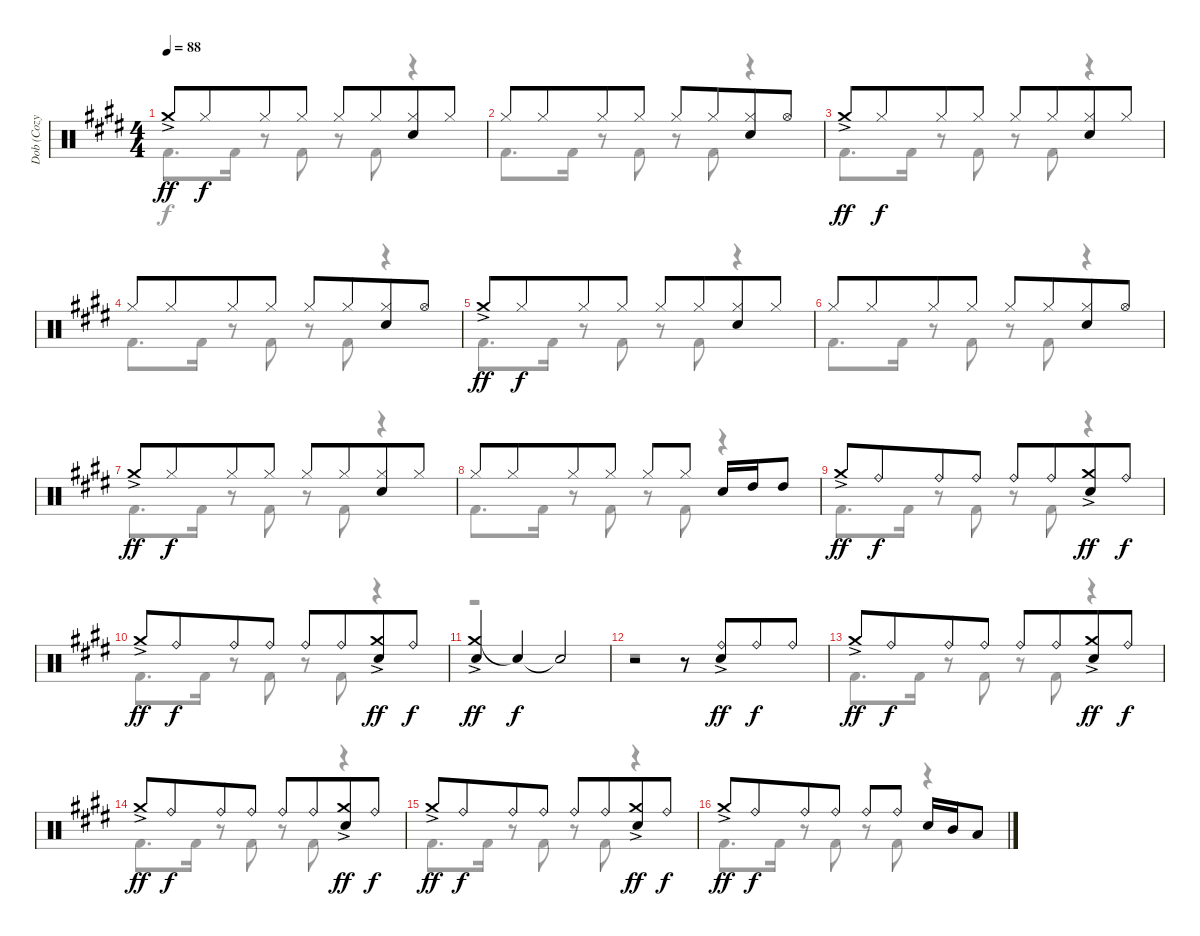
\track ("Dob (Cozy Powell)" "Dob (Cozy ") {instrument percussion}
\staff {score}
\articulation defaults
\voice
\ts (4 4)
\tempo 88
\clef neutral
\ks e "Crash medium (hit)"{ac}.8{dy ff} "Hi-Hat (closed)".8{dy f beam merge} "Hi-Hat (closed)".8 "Hi-Hat (closed)".8 "Hi-Hat (closed)".8 "Hi-Hat (closed)".8{beam merge}
("Hi-Hat (closed)" "Electric Snare (hit)").8 "Hi-Hat (closed)".8 |
"Hi-Hat (closed)".8 "Hi-Hat (closed)".8{beam merge} "Hi-Hat (closed)".8 "Hi-Hat (closed)".8 "Hi-Hat (closed)".8 "Hi-Hat (closed)".8{beam merge} ("Hi-Hat (closed)" "Electric Snare (hit)").8 "Hi-Hat (open)".8 |
"Crash medium (hit)"{ac}.8{dy ff} "Hi-Hat (closed)".8{dy f beam merge} "Hi-Hat (closed)".8 "Hi-Hat (closed)".8 "Hi-Hat (closed)".8 "Hi-Hat (closed)".8{beam merge} ("Hi-Hat (closed)" "Electric Snare (hit)").8 "Hi-Hat (closed)".8 |
"Hi-Hat (closed)".8 "Hi-Hat (closed)".8{beam merge} "Hi-Hat (closed)".8 "Hi-Hat (closed)".8 "Hi-Hat (closed)".8 "Hi-Hat (closed)".8{beam merge} ("Hi-Hat (closed)" "Electric Snare (hit)").8 "Hi-Hat (open)".8 |
"Crash medium (hit)"{ac}.8{dy ff} "Hi-Hat (closed)".8{dy f beam merge} "Hi-Hat (closed)".8 "Hi-Hat (closed)".8 "Hi-Hat (closed)".8 "Hi-Hat (closed)".8{beam merge} ("Hi-Hat (closed)" "Electric Snare (hit)").8 "Hi-Hat (closed)".8 |
"Hi-Hat (closed)".8 "Hi-Hat (closed)".8{beam merge} "Hi-Hat (closed)".8 "Hi-Hat (closed)".8 "Hi-Hat (closed)".8 "Hi-Hat (closed)".8{beam merge} ("Hi-Hat (closed)" "Electric Snare (hit)").8 "Hi-Hat (open)".8 |
"Crash medium (hit)"{ac}.8{dy ff} "Hi-Hat (closed)".8{dy f beam merge} "Hi-Hat (closed)".8 "Hi-Hat (closed)".8 "Hi-Hat (closed)".8 "Hi-Hat (closed)".8{beam merge} ("Hi-Hat (closed)" "Electric Snare (hit)").8 "Hi-Hat (closed)".8 |
"Hi-Hat (closed)".8 "Hi-Hat (closed)".8{beam merge} "Hi-Hat (closed)".8 "Hi-Hat (closed)".8 "Hi-Hat (closed)".8 "Hi-Hat (closed)".8 "Electric Snare (hit)".16 "High Tom (hit)".16 "High Tom (hit)".8 |
"Crash medium (hit)"{ac}.8{dy ff} "Ride (bell)".8{dy f beam merge} "Ride (bell)".8 "Ride (bell)".8 "Ride (bell)".8 "Ride (bell)".8{beam merge} ("Crash medium (hit)"{ac} "Electric Snare (hit)").8{dy ff} "Ride (bell)".8{dy f} |
"Crash medium (hit)"{ac}.8{dy ff} "Ride (bell)".8{dy f beam merge} "Ride (bell)".8 "Ride (bell)".8 "Ride (bell)".8 "Ride (bell)".8{beam merge} ("Crash medium (hit)"{ac} "Electric Snare (hit)").8{dy ff} "Ride (bell)".8{dy f} |
("Crash medium (hit)"{ac} "Electric Snare (hit)").4{dy ff} "Snare (hit)"{t}.4{dy f} "Snare (hit)"{t}.2 |
r.2 r.8{beam merge} ("Ride (bell)"{ac} "Electric Snare (hit)").8{dy ff beam merge} "Ride (bell)".8{dy f beam merge} "Ride (bell)".8 |
"Crash medium (hit)"{ac}.8{dy ff} "Ride (bell)".8{dy f beam merge} "Ride (bell)".8 "Ride (bell)".8 "Ride (bell)".8 "Ride (bell)".8{beam merge} ("Crash medium (hit)"{ac} "Electric Snare (hit)").8{dy ff} "Ride (bell)".8{dy f} |
"Crash medium (hit)"{ac}.8{dy ff} "Ride (bell)".8{dy f beam merge} "Ride (bell)".8 "Ride (bell)".8 "Ride (bell)".8 "Ride (bell)".8{beam merge} ("Crash medium (hit)"{ac} "Electric Snare (hit)").8{dy ff} "Ride (bell)".8{dy f} |
"Crash medium (hit)"{ac}.8{dy ff} "Ride (bell)".8{dy f beam merge} "Ride (bell)".8 "Ride (bell)".8 "Ride (bell)".8 "Ride (bell)".8{beam merge} ("Crash medium (hit)"{ac} "Electric Snare (hit)").8{dy ff} "Ride (bell)".8{dy f} |
"Crash medium (hit)"{ac}.8{dy ff} "Ride (bell)".8{dy f beam merge} "Ride (bell)".8 "Ride (bell)".8 "Ride (bell)".8 "Ride (bell)".8 "Electric Snare (hit)".16 "Mid Tom (hit)".16 "Low Tom (hit)".8
\voice
\clef neutral
\ottava regular
\simile none
\ks e "Kick (hit) 2".8{d dy f} "Kick (hit) 2".16
r.8 "Kick (hit) 2".8 r.8 "Kick (hit) 2".8 r.4 |
"Kick (hit) 2".8{d} "Kick (hit) 2".16 r.8 "Kick (hit) 2".8 r.8 "Kick (hit) 2".8 r.4 |
"Kick (hit) 2".8{d} "Kick (hit) 2".16 r.8 "Kick (hit) 2".8 r.8 "Kick (hit) 2".8 r.4 |
"Kick (hit) 2".8{d} "Kick (hit) 2".16 r.8 "Kick (hit) 2".8 r.8 "Kick (hit) 2".8 r.4 |
"Kick (hit) 2".8{d} "Kick (hit) 2".16 r.8 "Kick (hit) 2".8 r.8 "Kick (hit) 2".8 r.4 |
"Kick (hit) 2".8{d} "Kick (hit) 2".16 r.8 "Kick (hit) 2".8 r.8 "Kick (hit) 2".8 r.4 |
"Kick (hit) 2".8{d} "Kick (hit) 2".16 r.8 "Kick (hit) 2".8 r.8 "Kick (hit) 2".8 r.4 |
"Kick (hit) 2".8{d} "Kick (hit) 2".16 r.8 "Kick (hit) 2".8 r.8 "Kick (hit) 2".8 r.4 |
"Kick (hit) 2".8{d} "Kick (hit) 2".16 r.8 "Kick (hit) 2".8 r.8 "Kick (hit) 2".8 r.4 |
"Kick (hit) 2".8{d} "Kick (hit) 2".16 r.8 "Kick (hit) 2".8 r.8 "Kick (hit) 2".8 r.4 |
r.1 |
r.1 |
"Kick (hit) 2".8{d} "Kick (hit) 2".16 r.8 "Kick (hit) 2".8 r.8 "Kick (hit) 2".8 r.4 |
"Kick (hit) 2".8{d} "Kick (hit) 2".16 r.8 "Kick (hit) 2".8 r.8 "Kick (hit) 2".8 r.4 |
"Kick (hit) 2".8{d} "Kick (hit) 2".16 r.8 "Kick (hit) 2".8 r.8 "Kick (hit) 2".8 r.4 |
"Kick (hit) 2".8{d} "Kick (hit) 2".16 r.8 "Kick (hit) 2".8 r.8 "Kick (hit) 2".8 r.4
